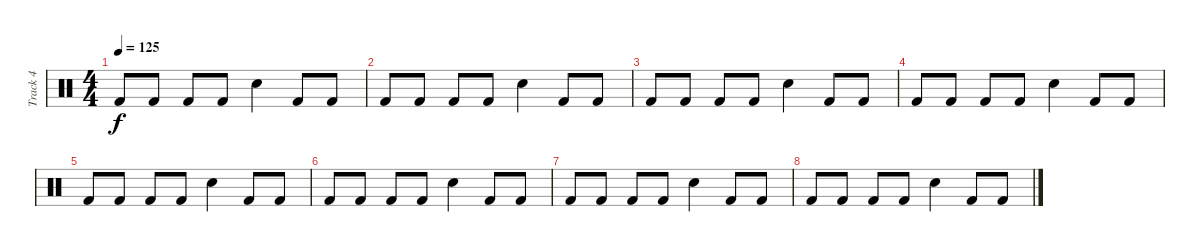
\track ("Track 4" "Track 4") {instrument percussion}
\staff {score}
\articulation defaults
\ts (4 4)
\tempo 125
\clef neutral
\ks c "Kick (hit) 2".8{dy f} "Kick (hit) 2".8 "Kick (hit) 2".8 "Kick (hit) 2".8 "Snare (hit) 2".4 "Kick (hit) 2".8 "Kick (hit) 2".8
|
"Kick (hit) 2".8 "Kick (hit) 2".8 "Kick (hit) 2".8 "Kick (hit) 2".8 "Snare (hit) 2".4 "Kick (hit) 2".8 "Kick (hit) 2".8 |
"Kick (hit) 2".8 "Kick (hit) 2".8 "Kick (hit) 2".8 "Kick (hit) 2".8 "Snare (hit) 2".4 "Kick (hit) 2".8 "Kick (hit) 2".8 |
"Kick (hit) 2".8 "Kick (hit) 2".8 "Kick (hit) 2".8 "Kick (hit) 2".8 "Snare (hit) 2".4 "Kick (hit) 2".8 "Kick (hit) 2".8 |
"Kick (hit) 2".8 "Kick (hit) 2".8 "Kick (hit) 2".8 "Kick (hit) 2".8 "Snare (hit) 2".4 "Kick (hit) 2".8 "Kick (hit) 2".8 |
"Kick (hit) 2".8 "Kick (hit) 2".8 "Kick (hit) 2".8 "Kick (hit) 2".8 "Snare (hit) 2".4 "Kick (hit) 2".8 "Kick (hit) 2".8 |
"Kick (hit) 2".8 "Kick (hit) 2".8 "Kick (hit) 2".8 "Kick (hit) 2".8 "Snare (hit) 2".4 "Kick (hit) 2".8 "Kick (hit) 2".8 |
"Kick (hit) 2".8 "Kick (hit) 2".8 "Kick (hit) 2".8 "Kick (hit) 2".8 "Snare (hit) 2".4 "Kick (hit) 2".8 "Kick (hit) 2".8
